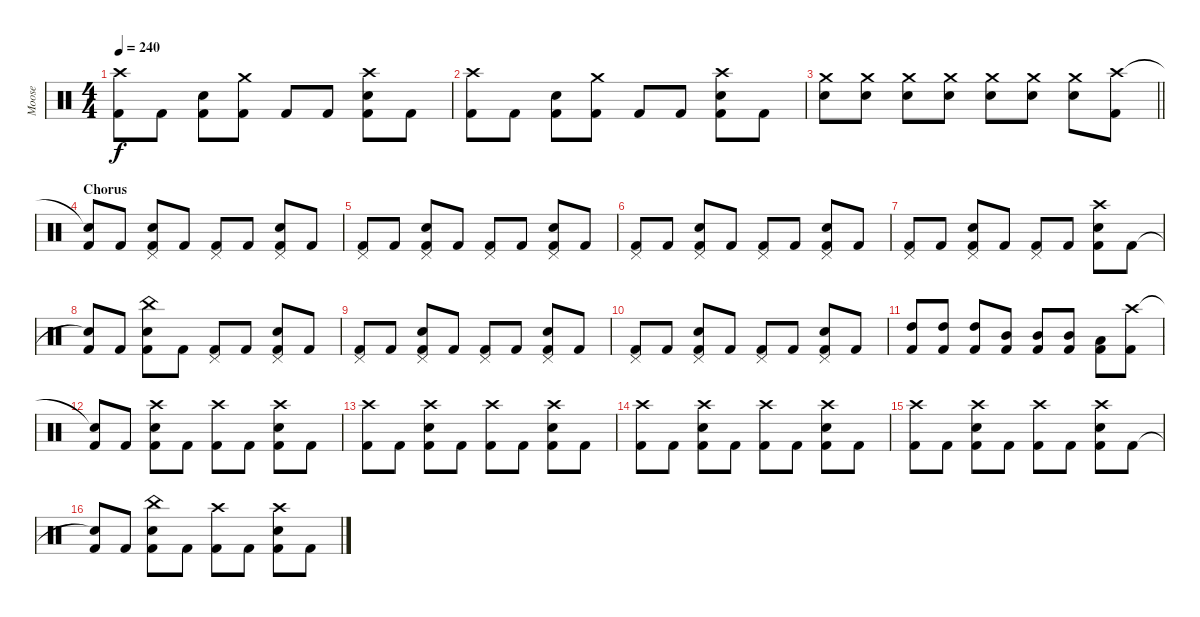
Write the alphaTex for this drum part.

\track ("Moose" "Moose") {instrument percussion}
\staff {score}
\articulation defaults
\ts (4 4)
\tempo 240
\clef neutral
\ks c
("Crash high (hit)" "Kick (hit) 2").8{dy f} "Kick (hit) 2".8 ("Snare (hit) 2" "Kick (hit) 2").8 ("Crash medium (hit)" "Kick (hit) 2").8 "Kick (hit) 2".8 "Kick (hit) 2".8 ("Crash high (hit)" "Snare (hit) 2" "Kick (hit) 2").8 "Kick (hit) 2".8 |
("Crash high (hit)" "Kick (hit) 2").8 "Kick (hit) 2".8 ("Snare (hit) 2" "Kick (hit) 2").8 ("Crash medium (hit)" "Kick (hit) 2").8 "Kick (hit) 2".8 "Kick (hit) 2".8 ("Crash high (hit)" "Snare (hit) 2" "Kick (hit) 2").8 "Kick (hit) 2".8 |
\barLineRight lightlight
("Crash medium (hit)" "Snare (hit) 2").8 ("Crash medium (hit)" "Snare (hit) 2").8 ("Crash medium (hit)" "Snare (hit) 2").8 ("Crash medium (hit)" "Snare (hit) 2").8 ("Crash medium (hit)" "Snare (hit) 2").8 ("Crash medium (hit)" "Snare (hit) 2").8 ("Crash medium (hit)" "Snare (hit) 2").8 ("Crash high (hit)" "Kick (hit) 2").8 |
\section ("" "Chorus")
("Snare (hit)"{t} "Kick (hit) 2").8 "Kick (hit) 2".8 ("Pedal Hi-Hat (hit)" "Snare (hit) 2" "Kick (hit) 2").8 "Kick (hit) 2".8 ("Pedal Hi-Hat (hit)" "Kick (hit) 2").8 "Kick (hit) 2".8 ("Pedal Hi-Hat (hit)" "Snare (hit) 2" "Kick (hit) 2").8 "Kick (hit) 2".8 |
("Pedal Hi-Hat (hit)" "Kick (hit) 2").8 "Kick (hit) 2".8 ("Pedal Hi-Hat (hit)" "Snare (hit) 2" "Kick (hit) 2").8 "Kick (hit) 2".8 ("Pedal Hi-Hat (hit)" "Kick (hit) 2").8 "Kick (hit) 2".8 ("Pedal Hi-Hat (hit)" "Snare (hit) 2" "Kick (hit) 2").8 "Kick (hit) 2".8 |
("Pedal Hi-Hat (hit)" "Kick (hit) 2").8 "Kick (hit) 2".8 ("Pedal Hi-Hat (hit)" "Snare (hit) 2" "Kick (hit) 2").8 "Kick (hit) 2".8 ("Pedal Hi-Hat (hit)" "Kick (hit) 2").8 "Kick (hit) 2".8 ("Pedal Hi-Hat (hit)" "Snare (hit) 2" "Kick (hit) 2").8 "Kick (hit) 2".8 |
("Pedal Hi-Hat (hit)" "Kick (hit) 2").8 "Kick (hit) 2".8 ("Pedal Hi-Hat (hit)" "Snare (hit) 2" "Kick (hit) 2").8 "Kick (hit) 2".8 ("Pedal Hi-Hat (hit)" "Kick (hit) 2").8 "Kick (hit) 2".8 ("Crash high (hit)" "Snare (hit) 2" "Kick (hit) 2").8 "Kick (hit) 2".8 |
("Snare (hit)"{t} "Kick (hit) 2").8 "Kick (hit) 2".8 ("China (hit)" "Snare (hit) 2" "Kick (hit) 2").8 "Kick (hit) 2".8 ("Pedal Hi-Hat (hit)" "Kick (hit) 2").8 "Kick (hit) 2".8 ("Pedal Hi-Hat (hit)" "Snare (hit) 2" "Kick (hit) 2").8 "Kick (hit) 2".8 |
("Pedal Hi-Hat (hit)" "Kick (hit) 2").8 "Kick (hit) 2".8 ("Pedal Hi-Hat (hit)" "Snare (hit) 2" "Kick (hit) 2").8 "Kick (hit) 2".8 ("Pedal Hi-Hat (hit)" "Kick (hit) 2").8 "Kick (hit) 2".8 ("Pedal Hi-Hat (hit)" "Snare (hit) 2" "Kick (hit) 2").8 "Kick (hit) 2".8 |
("Pedal Hi-Hat (hit)" "Kick (hit) 2").8 "Kick (hit) 2".8 ("Pedal Hi-Hat (hit)" "Snare (hit) 2" "Kick (hit) 2").8 "Kick (hit) 2".8 ("Pedal Hi-Hat (hit)" "Kick (hit) 2").8 "Kick (hit) 2".8 ("Pedal Hi-Hat (hit)" "Snare (hit) 2" "Kick (hit) 2").8 "Kick (hit) 2".8 |
("High Tom (hit)" "Kick (hit) 2").8 ("High Tom (hit)" "Kick (hit) 2").8 ("High Tom (hit)" "Kick (hit) 2").8 ("Mid Tom (hit)" "Kick (hit) 2").8 ("Mid Tom (hit)" "Kick (hit) 2").8 ("Mid Tom (hit)" "Kick (hit) 2").8 ("Low Tom (hit)" "Kick (hit) 2").8 ("Crash high (hit)" "Kick (hit) 2").8 |
("Snare (hit)"{t} "Kick (hit) 2").8 "Kick (hit) 2".8 ("Crash high (hit)" "Snare (hit) 2" "Kick (hit) 2").8 "Kick (hit) 2".8 ("Crash high (hit)" "Kick (hit) 2").8 "Kick (hit) 2".8 ("Crash high (hit)" "Snare (hit) 2" "Kick (hit) 2").8 "Kick (hit) 2".8 |
("Crash high (hit)" "Kick (hit) 2").8 "Kick (hit) 2".8 ("Crash high (hit)" "Snare (hit) 2" "Kick (hit) 2").8 "Kick (hit) 2".8 ("Crash high (hit)" "Kick (hit) 2").8 "Kick (hit) 2".8 ("Crash high (hit)" "Snare (hit) 2" "Kick (hit) 2").8 "Kick (hit) 2".8 |
("Crash high (hit)" "Kick (hit) 2").8 "Kick (hit) 2".8 ("Crash high (hit)" "Snare (hit) 2" "Kick (hit) 2").8 "Kick (hit) 2".8 ("Crash high (hit)" "Kick (hit) 2").8 "Kick (hit) 2".8 ("Crash high (hit)" "Snare (hit) 2" "Kick (hit) 2").8 "Kick (hit) 2".8 |
("Crash high (hit)" "Kick (hit) 2").8 "Kick (hit) 2".8 ("Crash high (hit)" "Snare (hit) 2" "Kick (hit) 2").8 "Kick (hit) 2".8 ("Crash high (hit)" "Kick (hit) 2").8 "Kick (hit) 2".8 ("Crash high (hit)" "Snare (hit) 2" "Kick (hit) 2").8 "Kick (hit) 2".8 |
("Snare (hit)"{t} "Kick (hit) 2").8 "Kick (hit) 2".8 ("China (hit)" "Snare (hit) 2" "Kick (hit) 2").8 "Kick (hit) 2".8 ("Crash high (hit)" "Kick (hit) 2").8 "Kick (hit) 2".8 ("Crash high (hit)" "Snare (hit) 2" "Kick (hit) 2").8 "Kick (hit) 2".8
